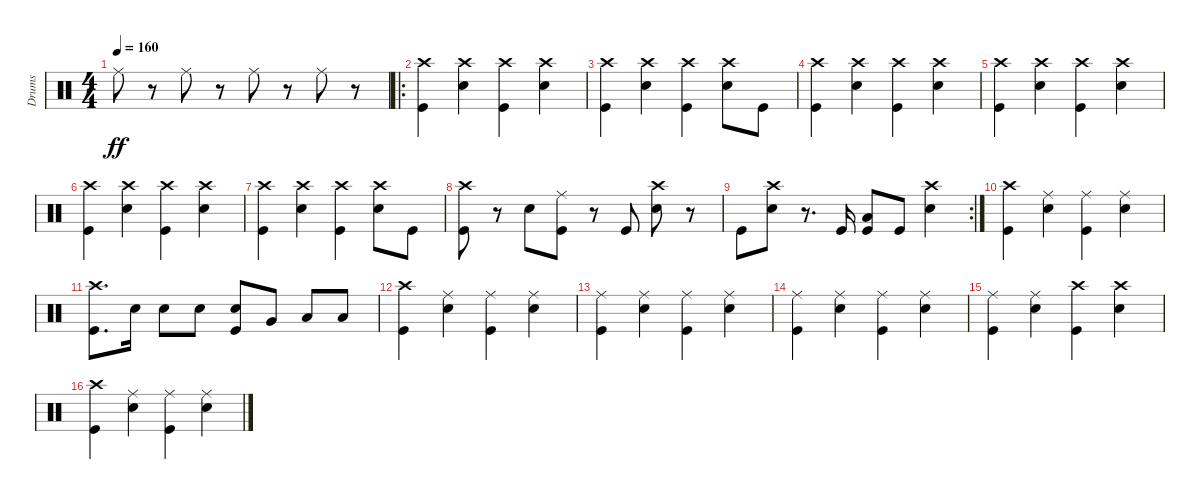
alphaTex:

\track ("Drums" "Drums") {instrument percussion}
\staff {score}
\articulation defaults
\ts (4 4)
\tempo 160
\clef neutral
\ks c "Ride (middle)".8{dy ff}
r.8 "Ride (middle)".8 r.8 "Ride (middle)".8 r.8 "Ride (middle)".8 r.8 |
\ro
("Crash high (hit)" "Kick (hit)").4 ("Crash high (hit)" "Snare (hit) 2").4 ("Crash high (hit)" "Kick (hit)").4 ("Crash high (hit)" "Snare (hit) 2").4 |
("Crash high (hit)" "Kick (hit)").4 ("Crash high (hit)" "Snare (hit) 2").4 ("Crash high (hit)" "Kick (hit)").4 ("Crash high (hit)" "Snare (hit) 2").8 "Kick (hit)".8 |
("Crash high (hit)" "Kick (hit)").4 ("Crash high (hit)" "Snare (hit) 2").4 ("Crash high (hit)" "Kick (hit)").4 ("Crash high (hit)" "Snare (hit) 2").4 |
("Crash high (hit)" "Kick (hit)").4 ("Crash high (hit)" "Snare (hit) 2").4 ("Crash high (hit)" "Kick (hit)").4 ("Crash high (hit)" "Snare (hit) 2").4 |
("Crash high (hit)" "Kick (hit)").4 ("Crash high (hit)" "Snare (hit) 2").4 ("Crash high (hit)" "Kick (hit)").4 ("Crash high (hit)" "Snare (hit) 2").4 |
("Crash high (hit)" "Kick (hit)").4 ("Crash high (hit)" "Snare (hit) 2").4 ("Crash high (hit)" "Kick (hit)").4 ("Crash high (hit)" "Snare (hit) 2").8 "Kick (hit)".8 |
("Crash high (hit)" "Kick (hit)").8 r.8 "Snare (hit) 2".8 ("Ride (middle)" "Kick (hit)").8 r.8 "Kick (hit)".8 ("Crash high (hit)" "Snare (hit) 2").8 r.8 |
\rc 2 "Kick (hit)".8
("Crash high (hit)" "Snare (hit) 2").8 r.8{d} "Kick (hit)".16 ("Low Floor Tom (hit)" "Kick (hit)").8 "Kick (hit)".8 ("Crash high (hit)" "Snare (hit) 2").4 |
("Crash high (hit)" "Kick (hit)").4 ("Ride (middle)" "Snare (hit) 2").4 ("Ride (middle)" "Kick (hit)").4 ("Ride (middle)" "Snare (hit) 2").4 |
("Crash high (hit)" "Kick (hit)").8{d} "Snare (hit) 2".16 "Snare (hit) 2".8 "Snare (hit) 2".8 ("Snare (hit) 2" "Kick (hit)").8 "Very Low Tom (hit)".8 "Low Floor Tom (hit)".8 "Low Floor Tom (hit)".8 |
("Crash high (hit)" "Kick (hit)").4 ("Ride (middle)" "Snare (hit) 2").4 ("Ride (middle)" "Kick (hit)").4 ("Ride (middle)" "Snare (hit) 2").4 |
("Ride (middle)" "Kick (hit)").4 ("Ride (middle)" "Snare (hit) 2").4 ("Ride (middle)" "Kick (hit)").4 ("Ride (middle)" "Snare (hit) 2").4 |
("Ride (middle)" "Kick (hit)").4 ("Ride (middle)" "Snare (hit) 2").4 ("Ride (middle)" "Kick (hit)").4 ("Ride (middle)" "Snare (hit) 2").4 |
("Ride (middle)" "Kick (hit)").4 ("Ride (middle)" "Snare (hit) 2").4 ("Crash high (hit)" "Kick (hit)").4 ("Crash high (hit)" "Snare (hit) 2").4 |
("Crash high (hit)" "Kick (hit)").4 ("Ride (middle)" "Snare (hit) 2").4 ("Ride (middle)" "Kick (hit)").4 ("Ride (middle)" "Snare (hit) 2").4
